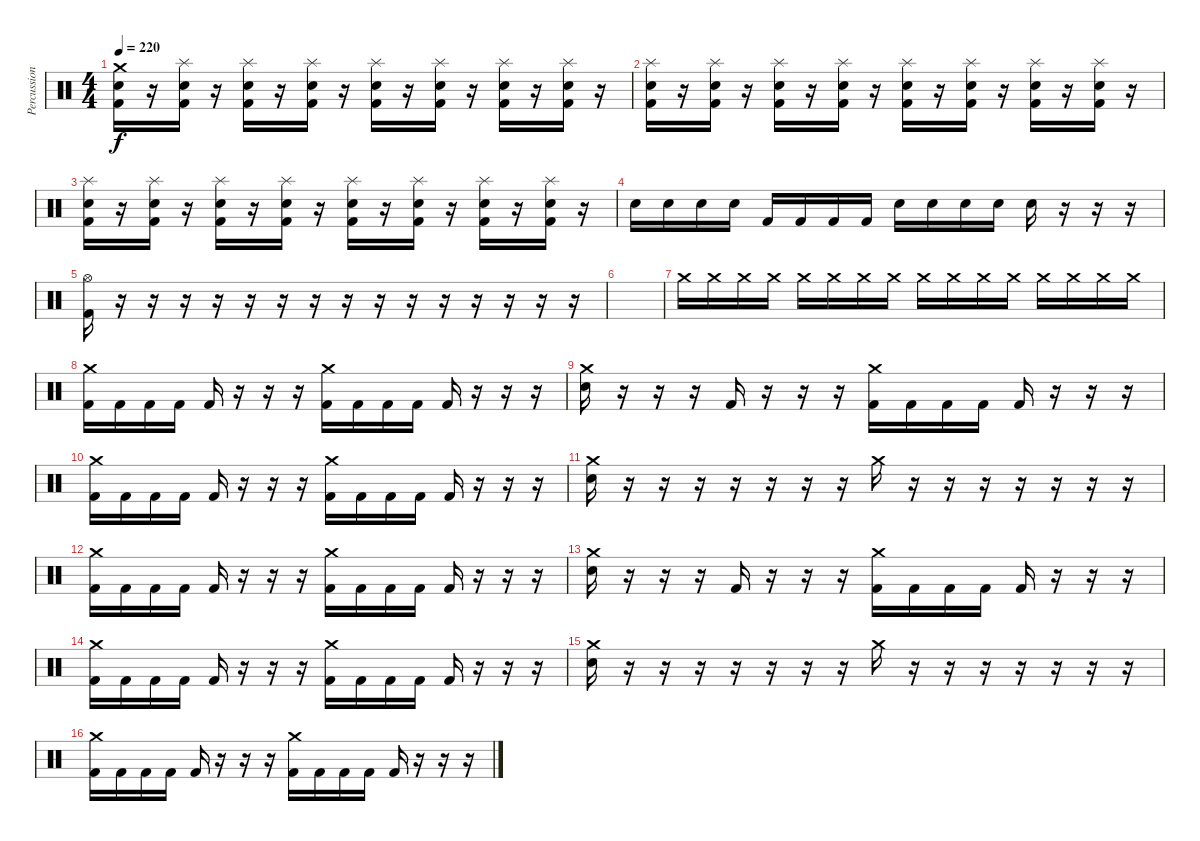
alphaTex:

\track ("Percussion" "Percussion") {instrument percussion}
\staff {score}
\articulation defaults
\ts (4 4)
\tempo 220
\clef neutral
\ks c
("Crash medium (hit)" "Electric Snare (hit)" "Kick (hit) 2").16{dy f} r.16 ("Splash (hit)" "Electric Snare (hit)" "Kick (hit) 2").16 r.16 ("Splash (hit)" "Electric Snare (hit)" "Kick (hit) 2").16 r.16 ("Splash (hit)" "Electric Snare (hit)" "Kick (hit) 2").16 r.16 ("Splash (hit)" "Electric Snare (hit)" "Kick (hit) 2").16 r.16 ("Splash (hit)" "Electric Snare (hit)" "Kick (hit) 2").16 r.16 ("Splash (hit)" "Electric Snare (hit)" "Kick (hit) 2").16 r.16 ("Splash (hit)" "Electric Snare (hit)" "Kick (hit) 2").16 r.16 |
("Splash (hit)" "Electric Snare (hit)" "Kick (hit) 2").16 r.16 ("Splash (hit)" "Electric Snare (hit)" "Kick (hit) 2").16 r.16 ("Splash (hit)" "Electric Snare (hit)" "Kick (hit) 2").16 r.16 ("Splash (hit)" "Electric Snare (hit)" "Kick (hit) 2").16 r.16 ("Splash (hit)" "Electric Snare (hit)" "Kick (hit) 2").16 r.16 ("Splash (hit)" "Electric Snare (hit)" "Kick (hit) 2").16 r.16 ("Splash (hit)" "Electric Snare (hit)" "Kick (hit) 2").16 r.16 ("Splash (hit)" "Electric Snare (hit)" "Kick (hit) 2").16 r.16 |
("Splash (hit)" "Electric Snare (hit)" "Kick (hit) 2").16 r.16 ("Splash (hit)" "Electric Snare (hit)" "Kick (hit) 2").16 r.16 ("Splash (hit)" "Electric Snare (hit)" "Kick (hit) 2").16 r.16 ("Splash (hit)" "Electric Snare (hit)" "Kick (hit) 2").16 r.16 ("Splash (hit)" "Electric Snare (hit)" "Kick (hit) 2").16 r.16 ("Splash (hit)" "Electric Snare (hit)" "Kick (hit) 2").16 r.16 ("Splash (hit)" "Electric Snare (hit)" "Kick (hit) 2").16 r.16 ("Splash (hit)" "Electric Snare (hit)" "Kick (hit) 2").16 r.16 |
"Electric Snare (hit)".16 "Electric Snare (hit)".16 "Electric Snare (hit)".16 "Electric Snare (hit)".16 "Kick (hit) 2".16 "Kick (hit) 2".16 "Kick (hit) 2".16 "Kick (hit) 2".16 "Electric Snare (hit)".16 "Electric Snare (hit)".16 "Electric Snare (hit)".16 "Electric Snare (hit)".16 "Electric Snare (hit)".16 r.16 r.16 r.16 |
("Hi-Hat (open)" "Kick (hit) 2").16 r.16{volume 0} r.16 r.16 r.16 r.16 r.16 r.16 r.16 r.16 r.16 r.16 r.16 r.16 r.16 r.16 |
|
"Crash medium (hit)".16{volume 16} "Crash medium (hit)".16 "Crash medium (hit)".16 "Crash medium (hit)".16 "Crash medium (hit)".16 "Crash medium (hit)".16 "Crash medium (hit)".16 "Crash medium (hit)".16 "Crash medium (hit)".16 "Crash medium (hit)".16 "Crash medium (hit)".16 "Crash medium (hit)".16 "Crash medium (hit)".16 "Crash medium (hit)".16 "Crash medium (hit)".16 "Crash medium (hit)".16 |
("Crash medium (hit)" "Kick (hit) 2").16 "Kick (hit) 2".16 "Kick (hit) 2".16 "Kick (hit) 2".16 "Kick (hit) 2".16 r.16 r.16 r.16 ("Crash medium (hit)" "Kick (hit) 2").16 "Kick (hit) 2".16 "Kick (hit) 2".16 "Kick (hit) 2".16 "Kick (hit) 2".16 r.16 r.16 r.16 |
("Crash medium (hit)" "Electric Snare (hit)").16 r.16 r.16 r.16 "Kick (hit) 2".16 r.16 r.16 r.16 ("Crash medium (hit)" "Kick (hit) 2").16 "Kick (hit) 2".16 "Kick (hit) 2".16 "Kick (hit) 2".16 "Kick (hit) 2".16 r.16 r.16 r.16 |
("Crash medium (hit)" "Kick (hit) 2").16 "Kick (hit) 2".16 "Kick (hit) 2".16 "Kick (hit) 2".16 "Kick (hit) 2".16 r.16 r.16 r.16 ("Crash medium (hit)" "Kick (hit) 2").16 "Kick (hit) 2".16 "Kick (hit) 2".16 "Kick (hit) 2".16 "Kick (hit) 2".16 r.16 r.16 r.16 |
("Crash medium (hit)" "Electric Snare (hit)").16 r.16 r.16 r.16 r.16 r.16 r.16 r.16 "Crash medium (hit)".16 r.16 r.16 r.16 r.16 r.16 r.16 r.16 |
("Crash medium (hit)" "Kick (hit) 2").16 "Kick (hit) 2".16 "Kick (hit) 2".16 "Kick (hit) 2".16 "Kick (hit) 2".16 r.16 r.16 r.16 ("Crash medium (hit)" "Kick (hit) 2").16 "Kick (hit) 2".16 "Kick (hit) 2".16 "Kick (hit) 2".16 "Kick (hit) 2".16 r.16 r.16 r.16 |
("Crash medium (hit)" "Electric Snare (hit)").16 r.16 r.16 r.16 "Kick (hit) 2".16 r.16 r.16 r.16 ("Crash medium (hit)" "Kick (hit) 2").16 "Kick (hit) 2".16 "Kick (hit) 2".16 "Kick (hit) 2".16 "Kick (hit) 2".16 r.16 r.16 r.16 |
("Crash medium (hit)" "Kick (hit) 2").16 "Kick (hit) 2".16 "Kick (hit) 2".16 "Kick (hit) 2".16 "Kick (hit) 2".16 r.16 r.16 r.16 ("Crash medium (hit)" "Kick (hit) 2").16 "Kick (hit) 2".16 "Kick (hit) 2".16 "Kick (hit) 2".16 "Kick (hit) 2".16 r.16 r.16 r.16 |
("Crash medium (hit)" "Electric Snare (hit)").16 r.16 r.16 r.16 r.16 r.16 r.16 r.16 "Crash medium (hit)".16 r.16 r.16 r.16 r.16 r.16 r.16 r.16 |
("Crash medium (hit)" "Kick (hit) 2").16 "Kick (hit) 2".16 "Kick (hit) 2".16 "Kick (hit) 2".16 "Kick (hit) 2".16 r.16 r.16 r.16 ("Crash medium (hit)" "Kick (hit) 2").16 "Kick (hit) 2".16 "Kick (hit) 2".16 "Kick (hit) 2".16 "Kick (hit) 2".16 r.16 r.16 r.16
